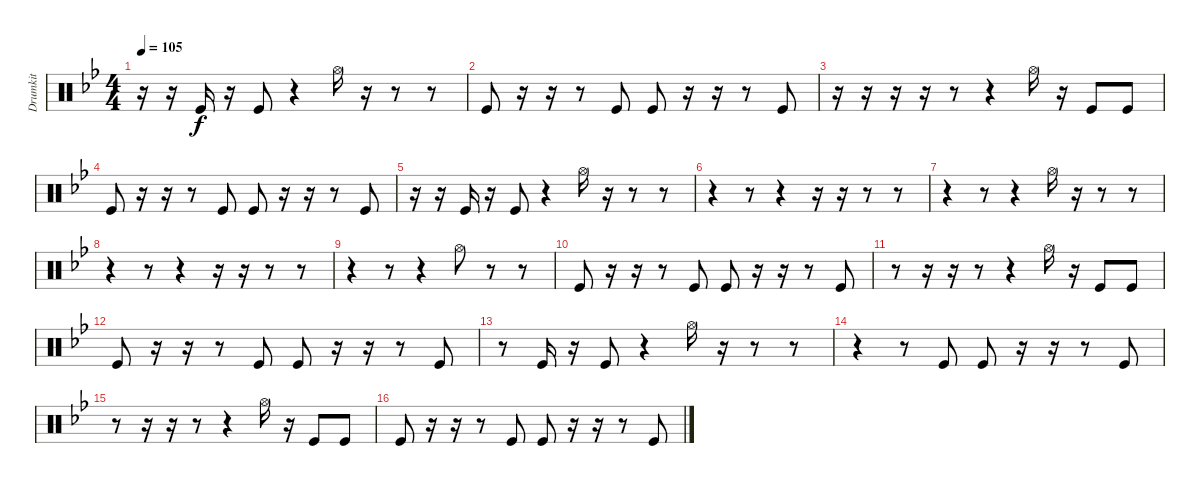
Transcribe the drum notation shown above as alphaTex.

\track ("Drumkit" "Drumkit") {instrument percussion}
\staff {score}
\articulation defaults
\ts (4 4)
\tempo 105
\clef neutral
\ks gminor
r.16{dy f} r.16 "Kick (hit)".16 r.16 "Kick (hit)".8 r.4 "Hi-Hat (open)".16 r.16 r.8 r.8 |
"Kick (hit)".8 r.16 r.16 r.8 "Kick (hit)".8 "Kick (hit)".8 r.16 r.16 r.8 "Kick (hit)".8 |
r.16 r.16 r.16 r.16 r.8 r.4 "Hi-Hat (open)".16 r.16 "Kick (hit)".8 "Kick (hit)".8 |
"Kick (hit)".8 r.16 r.16 r.8 "Kick (hit)".8 "Kick (hit)".8 r.16 r.16 r.8 "Kick (hit)".8 |
r.16 r.16 "Kick (hit)".16 r.16 "Kick (hit)".8 r.4 "Hi-Hat (open)".16 r.16 r.8 r.8 |
r.4 r.8 r.4 r.16 r.16 r.8 r.8 |
r.4 r.8 r.4 "Hi-Hat (open)".16 r.16 r.8 r.8 |
r.4 r.8 r.4 r.16 r.16 r.8 r.8 |
r.4 r.8 r.4 "Hi-Hat (open)".8 r.8 r.8 |
"Kick (hit)".8 r.16 r.16 r.8 "Kick (hit)".8 "Kick (hit)".8 r.16 r.16 r.8 "Kick (hit)".8 |
r.8 r.16 r.16 r.8 r.4 "Hi-Hat (open)".16 r.16 "Kick (hit)".8 "Kick (hit)".8 |
"Kick (hit)".8 r.16 r.16 r.8 "Kick (hit)".8 "Kick (hit)".8 r.16 r.16 r.8 "Kick (hit)".8 |
r.8 "Kick (hit)".16 r.16 "Kick (hit)".8 r.4 "Hi-Hat (open)".16 r.16 r.8 r.8 |
r.4 r.8 "Kick (hit)".8 "Kick (hit)".8 r.16 r.16 r.8 "Kick (hit)".8 |
r.8 r.16 r.16 r.8 r.4 "Hi-Hat (open)".16 r.16 "Kick (hit)".8 "Kick (hit)".8 |
"Kick (hit)".8 r.16 r.16 r.8 "Kick (hit)".8 "Kick (hit)".8 r.16 r.16 r.8 "Kick (hit)".8
